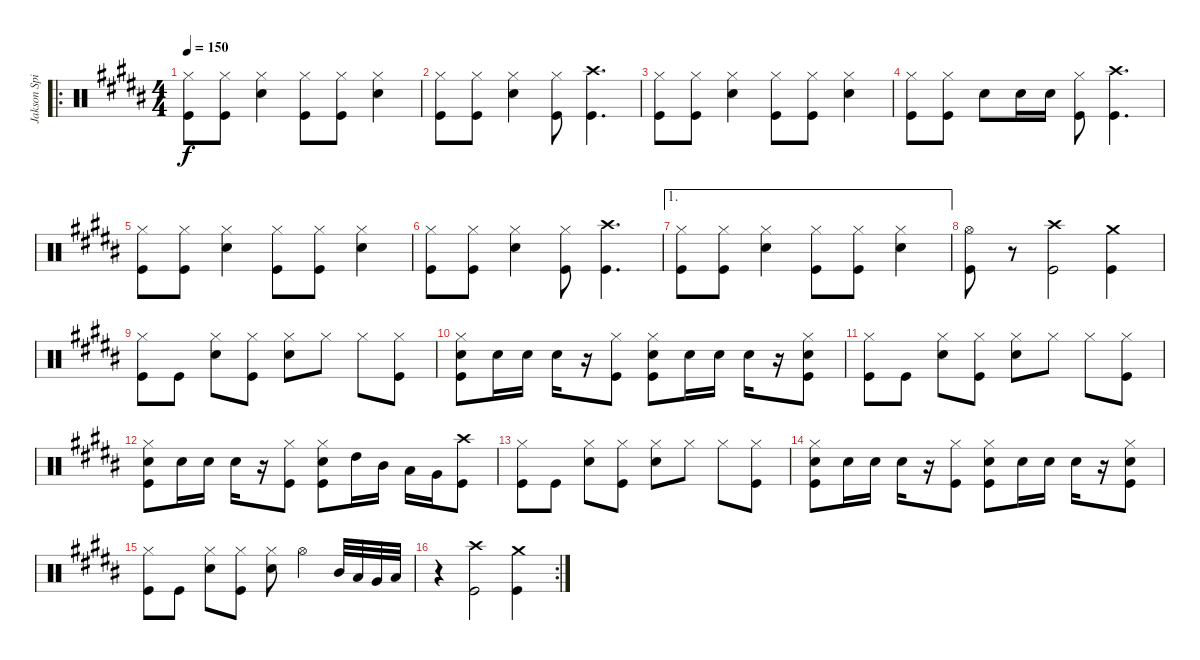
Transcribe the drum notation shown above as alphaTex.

\track ("Jakson Spires Drums" "Jakson Spi") {instrument percussion}
\staff {score}
\articulation defaults
\ro
\ts (4 4)
\tempo 150
\clef neutral
\ks b
("Hi-Hat (closed)" "Kick (hit)").8{dy f} ("Hi-Hat (closed)" "Kick (hit)").8 ("Hi-Hat (closed)" "Snare (hit) 2").4 ("Hi-Hat (closed)" "Kick (hit)").8 ("Hi-Hat (closed)" "Kick (hit)").8 ("Hi-Hat (closed)" "Snare (hit) 2").4 |
("Hi-Hat (closed)" "Kick (hit)").8 ("Hi-Hat (closed)" "Kick (hit)").8 ("Hi-Hat (closed)" "Snare (hit) 2").4 ("Hi-Hat (closed)" "Kick (hit)").8 ("Crash high (hit)" "Kick (hit)").4{d} |
("Hi-Hat (closed)" "Kick (hit)").8 ("Hi-Hat (closed)" "Kick (hit)").8 ("Hi-Hat (closed)" "Snare (hit) 2").4 ("Hi-Hat (closed)" "Kick (hit)").8 ("Hi-Hat (closed)" "Kick (hit)").8 ("Hi-Hat (closed)" "Snare (hit) 2").4 |
("Hi-Hat (closed)" "Kick (hit)").8 ("Hi-Hat (closed)" "Kick (hit)").8 "Snare (hit) 2".8 "Snare (hit) 2".16 "Snare (hit) 2".16 ("Hi-Hat (closed)" "Kick (hit)").8 ("Crash high (hit)" "Kick (hit)").4{d} |
("Hi-Hat (closed)" "Kick (hit)").8 ("Hi-Hat (closed)" "Kick (hit)").8 ("Hi-Hat (closed)" "Snare (hit) 2").4 ("Hi-Hat (closed)" "Kick (hit)").8 ("Hi-Hat (closed)" "Kick (hit)").8 ("Hi-Hat (closed)" "Snare (hit) 2").4 |
("Hi-Hat (closed)" "Kick (hit)").8 ("Hi-Hat (closed)" "Kick (hit)").8 ("Hi-Hat (closed)" "Snare (hit) 2").4 ("Hi-Hat (closed)" "Kick (hit)").8 ("Crash high (hit)" "Kick (hit)").4{d} |
\ae 1
("Hi-Hat (closed)" "Kick (hit)").8 ("Hi-Hat (closed)" "Kick (hit)").8 ("Hi-Hat (closed)" "Snare (hit) 2").4 ("Hi-Hat (closed)" "Kick (hit)").8 ("Hi-Hat (closed)" "Kick (hit)").8 ("Hi-Hat (closed)" "Snare (hit) 2").4 |
("Hi-Hat (open)" "Kick (hit)").8 r.8 ("Crash high (hit)" "Kick (hit)").2 ("Crash medium (hit)" "Kick (hit)").4 |
("Hi-Hat (closed)" "Kick (hit)").8 "Kick (hit)".8 ("Hi-Hat (closed)" "Snare (hit) 2").8 ("Hi-Hat (closed)" "Kick (hit)").8 ("Hi-Hat (closed)" "Snare (hit) 2").8 "Hi-Hat (closed)".8 "Hi-Hat (closed)".8 ("Hi-Hat (closed)" "Kick (hit)").8 |
("Hi-Hat (closed)" "Snare (hit) 2" "Kick (hit)").8 "Snare (hit) 2".16 "Snare (hit) 2".16 "Snare (hit) 2".16 r.16 ("Hi-Hat (closed)" "Kick (hit)").8 ("Hi-Hat (closed)" "Snare (hit) 2" "Kick (hit)").8 "Snare (hit) 2".16 "Snare (hit) 2".16 "Snare (hit) 2".16 r.16 ("Hi-Hat (closed)" "Snare (hit) 2" "Kick (hit)").8 |
("Hi-Hat (closed)" "Kick (hit)").8 "Kick (hit)".8 ("Hi-Hat (closed)" "Snare (hit) 2").8 ("Hi-Hat (closed)" "Kick (hit)").8 ("Hi-Hat (closed)" "Snare (hit) 2").8 "Hi-Hat (closed)".8 "Hi-Hat (closed)".8 ("Hi-Hat (closed)" "Kick (hit)").8 |
("Hi-Hat (closed)" "Snare (hit) 2" "Kick (hit)").8 "Snare (hit) 2".16 "Snare (hit) 2".16 "Snare (hit) 2".16 r.16 ("Hi-Hat (closed)" "Kick (hit)").8 ("Hi-Hat (closed)" "Snare (hit) 2" "Kick (hit)").8 "High Tom (hit)".16 "Mid Tom (hit)".16 "Low Tom (hit)".16 "Very Low Tom (hit)".16 ("Crash high (hit)" "Kick (hit)").8 |
("Hi-Hat (closed)" "Kick (hit)").8 "Kick (hit)".8 ("Hi-Hat (closed)" "Snare (hit) 2").8 ("Hi-Hat (closed)" "Kick (hit)").8 ("Hi-Hat (closed)" "Snare (hit) 2").8 "Hi-Hat (closed)".8 "Hi-Hat (closed)".8 ("Hi-Hat (closed)" "Kick (hit)").8 |
("Hi-Hat (closed)" "Snare (hit) 2" "Kick (hit)").8 "Snare (hit) 2".16 "Snare (hit) 2".16 "Snare (hit) 2".16 r.16 ("Hi-Hat (closed)" "Kick (hit)").8 ("Hi-Hat (closed)" "Snare (hit) 2" "Kick (hit)").8 "Snare (hit) 2".16 "Snare (hit) 2".16 "Snare (hit) 2".16 r.16 ("Hi-Hat (closed)" "Snare (hit) 2" "Kick (hit)").8 |
("Hi-Hat (closed)" "Kick (hit)").8 "Kick (hit)".8 ("Hi-Hat (closed)" "Snare (hit) 2").8 ("Hi-Hat (closed)" "Kick (hit)").8 ("Hi-Hat (closed)" "Snare (hit) 2").8 "Hi-Hat (open)".4 "Mid Tom (hit)".32 "Low Tom (hit)".32 "Very Low Tom (hit)".32 "Low Floor Tom (hit)".32 |
\rc 2
r.4 ("Crash high (hit)" "Kick (hit)").2 ("Crash medium (hit)" "Kick (hit)").4
